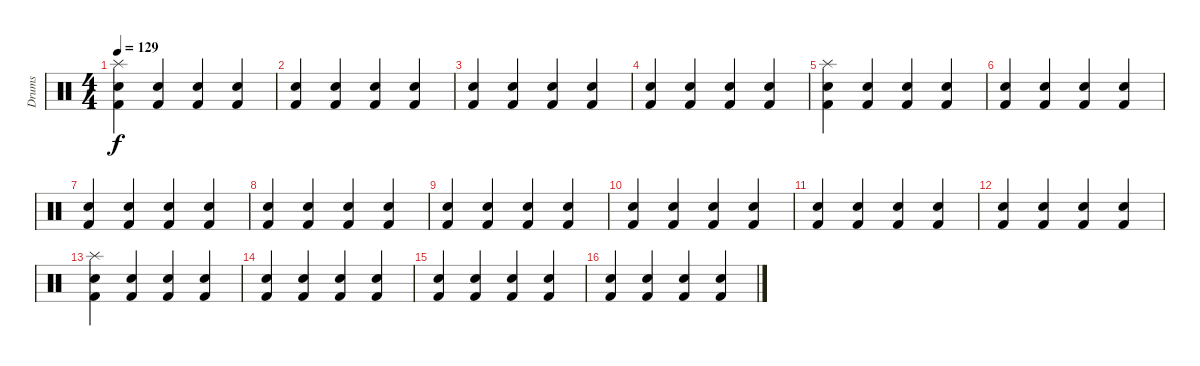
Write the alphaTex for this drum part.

\track ("Drums" "Drums") {instrument percussion}
\staff {score}
\articulation defaults
\ts (4 4)
\tempo 129
\clef neutral
\ks c
("Splash (hit)" "Hand Clap (hit)" "Kick (hit) 2").4{dy f} ("Hand Clap (hit)" "Kick (hit) 2").4 ("Hand Clap (hit)" "Kick (hit) 2").4 ("Hand Clap (hit)" "Kick (hit) 2").4 |
("Hand Clap (hit)" "Kick (hit) 2").4 ("Hand Clap (hit)" "Kick (hit) 2").4 ("Hand Clap (hit)" "Kick (hit) 2").4 ("Hand Clap (hit)" "Kick (hit) 2").4 |
("Hand Clap (hit)" "Kick (hit) 2").4 ("Hand Clap (hit)" "Kick (hit) 2").4 ("Hand Clap (hit)" "Kick (hit) 2").4 ("Hand Clap (hit)" "Kick (hit) 2").4 |
("Hand Clap (hit)" "Kick (hit) 2").4 ("Hand Clap (hit)" "Kick (hit) 2").4 ("Hand Clap (hit)" "Kick (hit) 2").4 ("Hand Clap (hit)" "Kick (hit) 2").4 |
("Splash (hit)" "Hand Clap (hit)" "Kick (hit) 2").4 ("Hand Clap (hit)" "Kick (hit) 2").4 ("Hand Clap (hit)" "Kick (hit) 2").4 ("Hand Clap (hit)" "Kick (hit) 2").4 |
("Hand Clap (hit)" "Kick (hit) 2").4 ("Hand Clap (hit)" "Kick (hit) 2").4 ("Hand Clap (hit)" "Kick (hit) 2").4 ("Hand Clap (hit)" "Kick (hit) 2").4 |
("Hand Clap (hit)" "Kick (hit) 2").4 ("Hand Clap (hit)" "Kick (hit) 2").4 ("Hand Clap (hit)" "Kick (hit) 2").4 ("Hand Clap (hit)" "Kick (hit) 2").4 |
("Hand Clap (hit)" "Kick (hit) 2").4 ("Hand Clap (hit)" "Kick (hit) 2").4 ("Hand Clap (hit)" "Kick (hit) 2").4 ("Hand Clap (hit)" "Kick (hit) 2").4 |
("Hand Clap (hit)" "Kick (hit) 2").4 ("Hand Clap (hit)" "Kick (hit) 2").4 ("Hand Clap (hit)" "Kick (hit) 2").4 ("Hand Clap (hit)" "Kick (hit) 2").4 |
("Hand Clap (hit)" "Kick (hit) 2").4 ("Hand Clap (hit)" "Kick (hit) 2").4 ("Hand Clap (hit)" "Kick (hit) 2").4 ("Hand Clap (hit)" "Kick (hit) 2").4 |
("Hand Clap (hit)" "Kick (hit) 2").4 ("Hand Clap (hit)" "Kick (hit) 2").4 ("Hand Clap (hit)" "Kick (hit) 2").4 ("Hand Clap (hit)" "Kick (hit) 2").4 |
("Hand Clap (hit)" "Kick (hit) 2").4 ("Hand Clap (hit)" "Kick (hit) 2").4 ("Hand Clap (hit)" "Kick (hit) 2").4 ("Hand Clap (hit)" "Kick (hit) 2").4 |
("Splash (hit)" "Hand Clap (hit)" "Kick (hit) 2").4 ("Hand Clap (hit)" "Kick (hit) 2").4 ("Hand Clap (hit)" "Kick (hit) 2").4 ("Hand Clap (hit)" "Kick (hit) 2").4 |
("Hand Clap (hit)" "Kick (hit) 2").4 ("Hand Clap (hit)" "Kick (hit) 2").4 ("Hand Clap (hit)" "Kick (hit) 2").4 ("Hand Clap (hit)" "Kick (hit) 2").4 |
("Hand Clap (hit)" "Kick (hit) 2").4 ("Hand Clap (hit)" "Kick (hit) 2").4 ("Hand Clap (hit)" "Kick (hit) 2").4 ("Hand Clap (hit)" "Kick (hit) 2").4 |
("Hand Clap (hit)" "Kick (hit) 2").4 ("Hand Clap (hit)" "Kick (hit) 2").4 ("Hand Clap (hit)" "Kick (hit) 2").4 ("Hand Clap (hit)" "Kick (hit) 2").4
